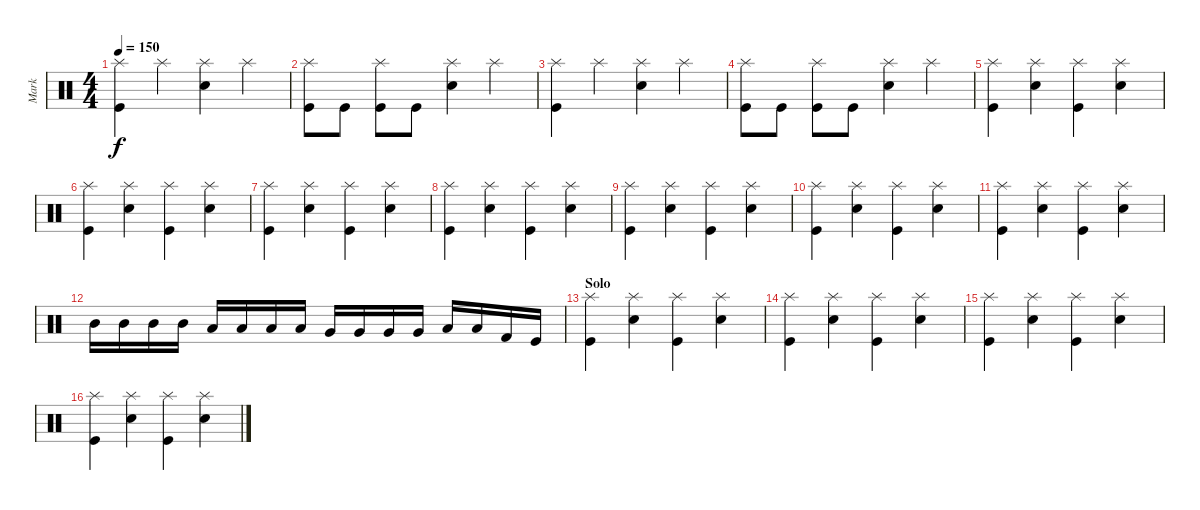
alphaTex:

\track ("Mark" "Mark") {instrument percussion}
\staff {score}
\articulation defaults
\ts (4 4)
\tempo 150
\clef neutral
\ks c
("Splash (hit)" "Kick (hit)").4{dy f} "Splash (hit)".4 ("Splash (hit)" "Electric Snare (hit)").4 "Splash (hit)".4 |
("Splash (hit)" "Kick (hit)").8 "Kick (hit)".8 ("Splash (hit)" "Kick (hit)").8 "Kick (hit)".8 ("Splash (hit)" "Electric Snare (hit)").4 "Splash (hit)".4 |
("Splash (hit)" "Kick (hit)").4 "Splash (hit)".4 ("Splash (hit)" "Electric Snare (hit)").4 "Splash (hit)".4 |
("Splash (hit)" "Kick (hit)").8 "Kick (hit)".8 ("Splash (hit)" "Kick (hit)").8 "Kick (hit)".8 ("Splash (hit)" "Electric Snare (hit)").4 "Splash (hit)".4 |
("Splash (hit)" "Kick (hit)").4 ("Splash (hit)" "Electric Snare (hit)").4 ("Splash (hit)" "Kick (hit)").4 ("Splash (hit)" "Electric Snare (hit)").4 |
("Splash (hit)" "Kick (hit)").4 ("Splash (hit)" "Electric Snare (hit)").4 ("Splash (hit)" "Kick (hit)").4 ("Splash (hit)" "Electric Snare (hit)").4 |
("Splash (hit)" "Kick (hit)").4 ("Splash (hit)" "Electric Snare (hit)").4 ("Splash (hit)" "Kick (hit)").4 ("Splash (hit)" "Electric Snare (hit)").4 |
("Splash (hit)" "Kick (hit)").4 ("Splash (hit)" "Electric Snare (hit)").4 ("Splash (hit)" "Kick (hit)").4 ("Splash (hit)" "Electric Snare (hit)").4 |
("Splash (hit)" "Kick (hit)").4 ("Splash (hit)" "Electric Snare (hit)").4 ("Splash (hit)" "Kick (hit)").4 ("Splash (hit)" "Electric Snare (hit)").4 |
("Splash (hit)" "Kick (hit)").4 ("Splash (hit)" "Electric Snare (hit)").4 ("Splash (hit)" "Kick (hit)").4 ("Splash (hit)" "Electric Snare (hit)").4 |
("Splash (hit)" "Kick (hit)").4 ("Splash (hit)" "Electric Snare (hit)").4 ("Splash (hit)" "Kick (hit)").4 ("Splash (hit)" "Electric Snare (hit)").4 |
"Mid Tom (hit)".16 "Mid Tom (hit)".16 "Mid Tom (hit)".16 "Mid Tom (hit)".16 "Low Tom (hit)".16 "Low Tom (hit)".16 "Low Tom (hit)".16 "Low Tom (hit)".16 "Very Low Tom (hit)".16 "Very Low Tom (hit)".16 "Very Low Tom (hit)".16 "Very Low Tom (hit)".16 "Low Floor Tom (hit)".16 "Low Floor Tom (hit)".16 "Kick (hit) 2".16 "Kick (hit)".16 |
\section ("" "Solo")
("Splash (hit)" "Kick (hit)").4 ("Splash (hit)" "Electric Snare (hit)").4 ("Splash (hit)" "Kick (hit)").4 ("Splash (hit)" "Electric Snare (hit)").4 |
("Splash (hit)" "Kick (hit)").4 ("Splash (hit)" "Electric Snare (hit)").4 ("Splash (hit)" "Kick (hit)").4 ("Splash (hit)" "Electric Snare (hit)").4 |
("Splash (hit)" "Kick (hit)").4 ("Splash (hit)" "Electric Snare (hit)").4 ("Splash (hit)" "Kick (hit)").4 ("Splash (hit)" "Electric Snare (hit)").4 |
("Splash (hit)" "Kick (hit)").4 ("Splash (hit)" "Electric Snare (hit)").4 ("Splash (hit)" "Kick (hit)").4 ("Splash (hit)" "Electric Snare (hit)").4
